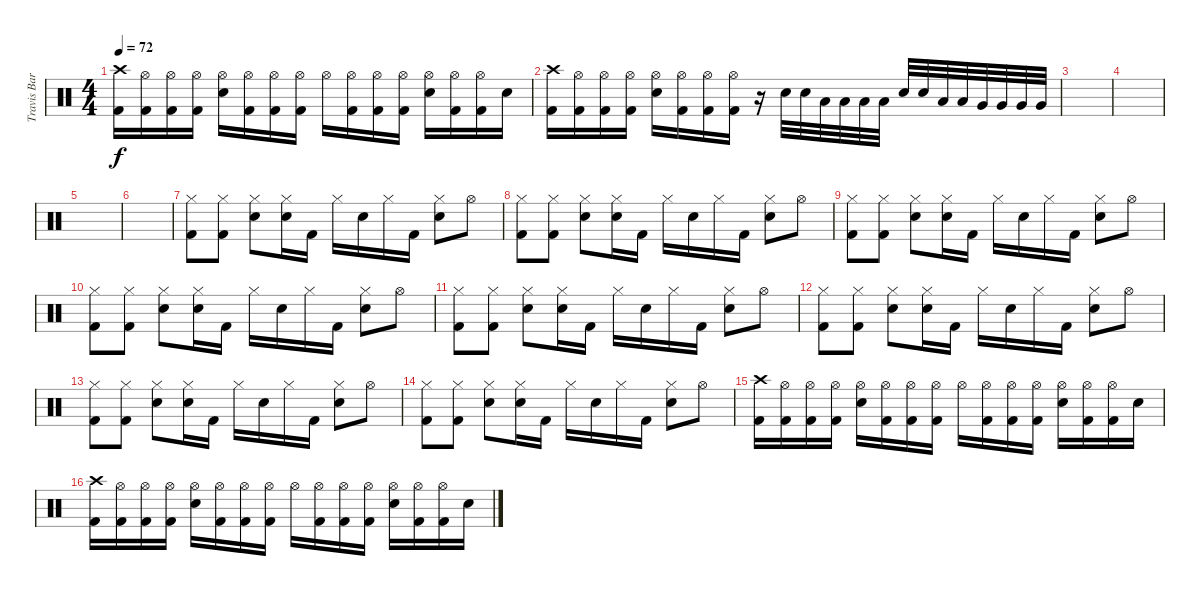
\track ("Travis Barker" "Travis Bar") {instrument percussion}
\staff {score}
\articulation defaults
\ts (4 4)
\tempo 72
\clef neutral
\ks c
("Crash high (hit)" "Kick (hit) 2").16{dy f} ("Hi-Hat (open)" "Kick (hit) 2").16 ("Hi-Hat (open)" "Kick (hit) 2").16 ("Hi-Hat (open)" "Kick (hit) 2").16 ("Hi-Hat (open)" "Electric Snare (hit)").16 ("Hi-Hat (open)" "Kick (hit) 2").16 ("Hi-Hat (open)" "Kick (hit) 2").16 ("Hi-Hat (open)" "Kick (hit) 2").16 "Hi-Hat (open)".16 ("Hi-Hat (open)" "Kick (hit) 2").16 ("Hi-Hat (open)" "Kick (hit) 2").16 ("Hi-Hat (open)" "Kick (hit) 2").16 ("Hi-Hat (open)" "Electric Snare (hit)").16 ("Hi-Hat (open)" "Kick (hit) 2").16 ("Hi-Hat (open)" "Kick (hit) 2").16 "Electric Snare (hit)".16 |
("Crash high (hit)" "Kick (hit) 2").16 ("Hi-Hat (open)" "Kick (hit) 2").16 ("Hi-Hat (open)" "Kick (hit) 2").16 ("Hi-Hat (open)" "Kick (hit) 2").16 ("Hi-Hat (open)" "Electric Snare (hit)").16 ("Hi-Hat (open)" "Kick (hit) 2").16 ("Hi-Hat (open)" "Kick (hit) 2").16 ("Hi-Hat (open)" "Kick (hit) 2").16 r.16 "Electric Snare (hit)".32 "Electric Snare (hit)".32 "Low Tom (hit)".32 "Low Tom (hit)".32 "Low Tom (hit)".32 "Low Tom (hit)".32 "Electric Snare (hit)".32 "Electric Snare (hit)".32 "Low Tom (hit)".32 "Low Tom (hit)".32 "Very Low Tom (hit)".32 "Very Low Tom (hit)".32 "Very Low Tom (hit)".32 "Very Low Tom (hit)".32 |
|
|
|
|
("Hi-Hat (closed)" "Kick (hit) 2").8 ("Hi-Hat (closed)" "Kick (hit) 2").8 ("Hi-Hat (closed)" "Electric Snare (hit)").8 ("Hi-Hat (closed)" "Electric Snare (hit)").16 "Kick (hit) 2".16 "Hi-Hat (closed)".16 "Electric Snare (hit)".16 "Hi-Hat (closed)".16 "Kick (hit) 2".16 ("Hi-Hat (closed)" "Electric Snare (hit)").8 "Hi-Hat (open)".8 |
("Hi-Hat (closed)" "Kick (hit) 2").8 ("Hi-Hat (closed)" "Kick (hit) 2").8 ("Hi-Hat (closed)" "Electric Snare (hit)").8 ("Hi-Hat (closed)" "Electric Snare (hit)").16 "Kick (hit) 2".16 "Hi-Hat (closed)".16 "Electric Snare (hit)".16 "Hi-Hat (closed)".16 "Kick (hit) 2".16 ("Hi-Hat (closed)" "Electric Snare (hit)").8 "Hi-Hat (open)".8 |
("Hi-Hat (closed)" "Kick (hit) 2").8 ("Hi-Hat (closed)" "Kick (hit) 2").8 ("Hi-Hat (closed)" "Electric Snare (hit)").8 ("Hi-Hat (closed)" "Electric Snare (hit)").16 "Kick (hit) 2".16 "Hi-Hat (closed)".16 "Electric Snare (hit)".16 "Hi-Hat (closed)".16 "Kick (hit) 2".16 ("Hi-Hat (closed)" "Electric Snare (hit)").8 "Hi-Hat (open)".8 |
("Hi-Hat (closed)" "Kick (hit) 2").8 ("Hi-Hat (closed)" "Kick (hit) 2").8 ("Hi-Hat (closed)" "Electric Snare (hit)").8 ("Hi-Hat (closed)" "Electric Snare (hit)").16 "Kick (hit) 2".16 "Hi-Hat (closed)".16 "Electric Snare (hit)".16 "Hi-Hat (closed)".16 "Kick (hit) 2".16 ("Hi-Hat (closed)" "Electric Snare (hit)").8 "Hi-Hat (open)".8 |
("Hi-Hat (closed)" "Kick (hit) 2").8 ("Hi-Hat (closed)" "Kick (hit) 2").8 ("Hi-Hat (closed)" "Electric Snare (hit)").8 ("Hi-Hat (closed)" "Electric Snare (hit)").16 "Kick (hit) 2".16 "Hi-Hat (closed)".16 "Electric Snare (hit)".16 "Hi-Hat (closed)".16 "Kick (hit) 2".16 ("Hi-Hat (closed)" "Electric Snare (hit)").8 "Hi-Hat (open)".8 |
("Hi-Hat (closed)" "Kick (hit) 2").8 ("Hi-Hat (closed)" "Kick (hit) 2").8 ("Hi-Hat (closed)" "Electric Snare (hit)").8 ("Hi-Hat (closed)" "Electric Snare (hit)").16 "Kick (hit) 2".16 "Hi-Hat (closed)".16 "Electric Snare (hit)".16 "Hi-Hat (closed)".16 "Kick (hit) 2".16 ("Hi-Hat (closed)" "Electric Snare (hit)").8 "Hi-Hat (open)".8 |
("Hi-Hat (closed)" "Kick (hit) 2").8 ("Hi-Hat (closed)" "Kick (hit) 2").8 ("Hi-Hat (closed)" "Electric Snare (hit)").8 ("Hi-Hat (closed)" "Electric Snare (hit)").16 "Kick (hit) 2".16 "Hi-Hat (closed)".16 "Electric Snare (hit)".16 "Hi-Hat (closed)".16 "Kick (hit) 2".16 ("Hi-Hat (closed)" "Electric Snare (hit)").8 "Hi-Hat (open)".8 |
("Hi-Hat (closed)" "Kick (hit) 2").8 ("Hi-Hat (closed)" "Kick (hit) 2").8 ("Hi-Hat (closed)" "Electric Snare (hit)").8 ("Hi-Hat (closed)" "Electric Snare (hit)").16 "Kick (hit) 2".16 "Hi-Hat (closed)".16 "Electric Snare (hit)".16 "Hi-Hat (closed)".16 "Kick (hit) 2".16 ("Hi-Hat (closed)" "Electric Snare (hit)").8 "Hi-Hat (open)".8 |
("Crash high (hit)" "Kick (hit) 2").16 ("Hi-Hat (open)" "Kick (hit) 2").16 ("Hi-Hat (open)" "Kick (hit) 2").16 ("Hi-Hat (open)" "Kick (hit) 2").16 ("Hi-Hat (open)" "Electric Snare (hit)").16 ("Hi-Hat (open)" "Kick (hit) 2").16 ("Hi-Hat (open)" "Kick (hit) 2").16 ("Hi-Hat (open)" "Kick (hit) 2").16 "Hi-Hat (open)".16 ("Hi-Hat (open)" "Kick (hit) 2").16 ("Hi-Hat (open)" "Kick (hit) 2").16 ("Hi-Hat (open)" "Kick (hit) 2").16 ("Hi-Hat (open)" "Electric Snare (hit)").16 ("Hi-Hat (open)" "Kick (hit) 2").16 ("Hi-Hat (open)" "Kick (hit) 2").16 "Electric Snare (hit)".16 |
("Crash high (hit)" "Kick (hit) 2").16 ("Hi-Hat (open)" "Kick (hit) 2").16 ("Hi-Hat (open)" "Kick (hit) 2").16 ("Hi-Hat (open)" "Kick (hit) 2").16 ("Hi-Hat (open)" "Electric Snare (hit)").16 ("Hi-Hat (open)" "Kick (hit) 2").16 ("Hi-Hat (open)" "Kick (hit) 2").16 ("Hi-Hat (open)" "Kick (hit) 2").16 "Hi-Hat (open)".16 ("Hi-Hat (open)" "Kick (hit) 2").16 ("Hi-Hat (open)" "Kick (hit) 2").16 ("Hi-Hat (open)" "Kick (hit) 2").16 ("Hi-Hat (open)" "Electric Snare (hit)").16 ("Hi-Hat (open)" "Kick (hit) 2").16 ("Hi-Hat (open)" "Kick (hit) 2").16 "Electric Snare (hit)".16
